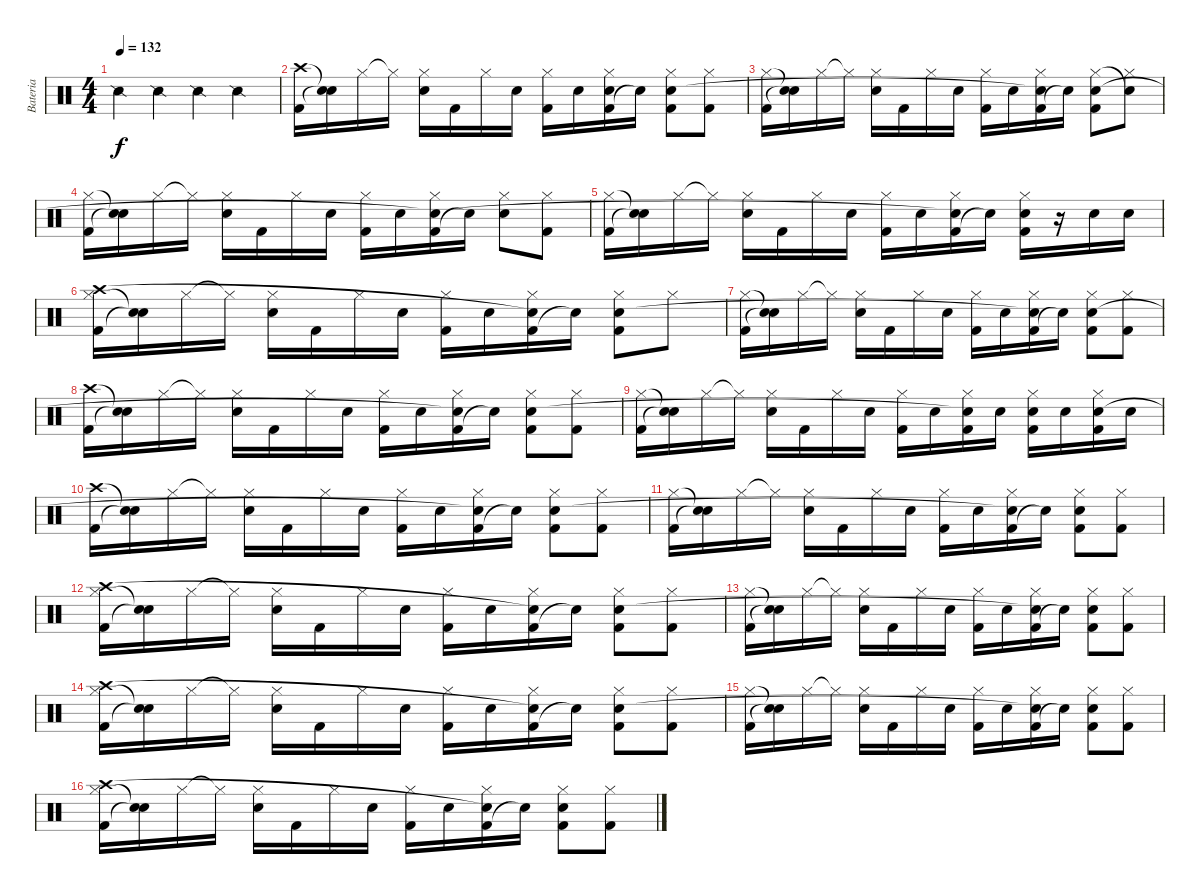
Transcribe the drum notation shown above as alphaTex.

\track ("Bateria" "Bateria") {instrument percussion}
\staff {score}
\articulation defaults
\ts (4 4)
\tempo 132
\clef neutral
\ks c "Snare (side stick) 2".4{dy f} "Snare (side stick) 2".4 "Snare (side stick) 2".4 "Snare (side stick) 2".4
|
("Kick (hit) 2" "Crash high (hit)").16 ("Snare (hit)"{t} "Electric Snare (hit)"{t}).16 "Hi-Hat (closed)".16 "Hi-Hat (closed)"{t}.16 ("Hi-Hat (closed)" "Electric Snare (hit)").16 "Kick (hit) 2".16 "Hi-Hat (closed)".16 "Electric Snare (hit)".16 ("Kick (hit) 2" "Hi-Hat (closed)").16 "Electric Snare (hit)".16 ("Kick (hit) 2" "Hi-Hat (closed)" "Snare (hit)").16 "Electric Snare (hit)"{t}.16 ("Kick (hit) 2" "Hi-Hat (closed)" "Electric Snare (hit)").8 ("Kick (hit) 2" "Hi-Hat (closed)").8 |
("Kick (hit) 2" "Hi-Hat (closed)").16 ("Snare (hit)"{t} "Electric Snare (hit)"{t}).16 "Hi-Hat (closed)".16 "Hi-Hat (closed)"{t}.16 ("Hi-Hat (closed)" "Electric Snare (hit)").16 "Kick (hit) 2".16 "Hi-Hat (closed)".16 "Electric Snare (hit)".16 ("Kick (hit) 2" "Hi-Hat (closed)").16 "Electric Snare (hit)".16 ("Kick (hit) 2" "Hi-Hat (closed)" "Snare (hit)"{t}).16 "Electric Snare (hit)"{t}.16 ("Kick (hit) 2" "Hi-Hat (closed)" "Electric Snare (hit)").8 ("Hi-Hat (closed)" "Snare (hit)"{t}).8 |
("Kick (hit) 2" "Hi-Hat (closed)").16 ("Snare (hit)"{t} "Electric Snare (hit)"{t}).16 "Hi-Hat (closed)".16 "Hi-Hat (closed)"{t}.16 ("Hi-Hat (closed)" "Electric Snare (hit)").16 "Kick (hit) 2".16 "Hi-Hat (closed)".16 "Electric Snare (hit)".16 ("Kick (hit) 2" "Hi-Hat (closed)").16 "Electric Snare (hit)".16 ("Kick (hit) 2" "Hi-Hat (closed)" "Snare (hit)"{t}).16 "Electric Snare (hit)"{t}.16 ("Hi-Hat (closed)" "Electric Snare (hit)").8 ("Kick (hit) 2" "Hi-Hat (closed)").8 |
("Kick (hit) 2" "Hi-Hat (closed)").16 ("Snare (hit)"{t} "Electric Snare (hit)"{t}).16 "Hi-Hat (closed)".16 "Hi-Hat (closed)"{t}.16 ("Hi-Hat (closed)" "Electric Snare (hit)").16 "Kick (hit) 2".16 "Hi-Hat (closed)".16 "Electric Snare (hit)".16 ("Kick (hit) 2" "Hi-Hat (closed)").16 "Electric Snare (hit)".16 ("Kick (hit) 2" "Hi-Hat (closed)" "Snare (hit)"{t}).16 "Electric Snare (hit)"{t}.16 ("Kick (hit) 2" "Hi-Hat (closed)" "Electric Snare (hit)").16 r.16 "Electric Snare (hit)".16 "Electric Snare (hit)".16 |
("Kick (hit) 2" "Hi-Hat (closed)" "Crash high (hit)").16 ("Snare (hit)"{t} "Electric Snare (hit)"{t}).16 "Hi-Hat (closed)".16 "Hi-Hat (closed)"{t}.16 ("Hi-Hat (closed)" "Electric Snare (hit)").16 "Kick (hit) 2".16 "Hi-Hat (closed)".16 "Electric Snare (hit)".16 ("Kick (hit) 2" "Hi-Hat (closed)").16 "Electric Snare (hit)".16 ("Kick (hit) 2" "Hi-Hat (closed)" "Snare (hit)"{t}).16 "Electric Snare (hit)"{t}.16 ("Kick (hit) 2" "Hi-Hat (closed)" "Electric Snare (hit)").8 "Hi-Hat (closed)".8 |
("Kick (hit) 2" "Hi-Hat (closed)").16 ("Snare (hit)"{t} "Electric Snare (hit)"{t}).16 "Hi-Hat (closed)".16 "Hi-Hat (closed)"{t}.16 ("Hi-Hat (closed)" "Electric Snare (hit)").16 "Kick (hit) 2".16 "Hi-Hat (closed)".16 "Electric Snare (hit)".16 ("Kick (hit) 2" "Hi-Hat (closed)").16 "Electric Snare (hit)".16 ("Kick (hit) 2" "Hi-Hat (closed)" "Snare (hit)"{t}).16 "Electric Snare (hit)"{t}.16 ("Kick (hit) 2" "Hi-Hat (closed)" "Electric Snare (hit)").8 ("Kick (hit) 2" "Hi-Hat (closed)").8 |
("Kick (hit) 2" "Crash high (hit)").16 ("Snare (hit)"{t} "Electric Snare (hit)"{t}).16 "Hi-Hat (closed)".16 "Hi-Hat (closed)"{t}.16 ("Hi-Hat (closed)" "Electric Snare (hit)").16 "Kick (hit) 2".16 "Hi-Hat (closed)".16 "Electric Snare (hit)".16 ("Kick (hit) 2" "Hi-Hat (closed)").16 "Electric Snare (hit)".16 ("Kick (hit) 2" "Hi-Hat (closed)" "Snare (hit)"{t}).16 "Electric Snare (hit)"{t}.16 ("Kick (hit) 2" "Hi-Hat (closed)" "Electric Snare (hit)").8 ("Kick (hit) 2" "Hi-Hat (closed)").8 |
("Kick (hit) 2" "Hi-Hat (closed)").16 ("Snare (hit)"{t} "Electric Snare (hit)"{t}).16 "Hi-Hat (closed)".16 "Hi-Hat (closed)"{t}.16 ("Hi-Hat (closed)" "Electric Snare (hit)").16 "Kick (hit) 2".16 "Hi-Hat (closed)".16 "Electric Snare (hit)".16 ("Kick (hit) 2" "Hi-Hat (closed)").16 "Electric Snare (hit)".16 ("Kick (hit) 2" "Hi-Hat (closed)" "Snare (hit)"{t}).16 "Electric Snare (hit)".16 ("Kick (hit) 2" "Hi-Hat (closed)" "Electric Snare (hit)").16 "Electric Snare (hit)".16 ("Kick (hit) 2" "Hi-Hat (closed)" "Electric Snare (hit)").16 "Electric Snare (hit)".16 |
("Kick (hit) 2" "Crash high (hit)").16 ("Snare (hit)"{t} "Electric Snare (hit)"{t}).16 "Hi-Hat (closed)".16 "Hi-Hat (closed)"{t}.16 ("Hi-Hat (closed)" "Electric Snare (hit)").16 "Kick (hit) 2".16 "Hi-Hat (closed)".16 "Electric Snare (hit)".16 ("Kick (hit) 2" "Hi-Hat (closed)").16 "Electric Snare (hit)".16 ("Kick (hit) 2" "Hi-Hat (closed)" "Snare (hit)"{t}).16 "Electric Snare (hit)"{t}.16 ("Kick (hit) 2" "Hi-Hat (closed)" "Electric Snare (hit)").8 ("Kick (hit) 2" "Hi-Hat (closed)").8 |
("Kick (hit) 2" "Hi-Hat (closed)").16 ("Snare (hit)"{t} "Electric Snare (hit)"{t}).16 "Hi-Hat (closed)".16 "Hi-Hat (closed)"{t}.16 ("Hi-Hat (closed)" "Electric Snare (hit)").16 "Kick (hit) 2".16 "Hi-Hat (closed)".16 "Electric Snare (hit)".16 ("Kick (hit) 2" "Hi-Hat (closed)").16 "Electric Snare (hit)".16 ("Kick (hit) 2" "Hi-Hat (closed)" "Snare (hit)"{t}).16 "Electric Snare (hit)"{t}.16 ("Kick (hit) 2" "Hi-Hat (closed)" "Electric Snare (hit)").8 ("Kick (hit) 2" "Hi-Hat (closed)").8 |
("Kick (hit) 2" "Hi-Hat (closed)" "Crash high (hit)").16 ("Snare (hit)"{t} "Electric Snare (hit)"{t}).16 "Hi-Hat (closed)".16 "Hi-Hat (closed)"{t}.16 ("Hi-Hat (closed)" "Electric Snare (hit)").16 "Kick (hit) 2".16 "Hi-Hat (closed)".16 "Electric Snare (hit)".16 ("Kick (hit) 2" "Hi-Hat (closed)").16 "Electric Snare (hit)".16 ("Kick (hit) 2" "Hi-Hat (closed)" "Snare (hit)"{t}).16 "Electric Snare (hit)"{t}.16 ("Kick (hit) 2" "Hi-Hat (closed)" "Electric Snare (hit)").8 ("Kick (hit) 2" "Hi-Hat (closed)").8 |
("Kick (hit) 2" "Hi-Hat (closed)").16 ("Snare (hit)"{t} "Electric Snare (hit)"{t}).16 "Hi-Hat (closed)".16 "Hi-Hat (closed)"{t}.16 ("Hi-Hat (closed)" "Electric Snare (hit)").16 "Kick (hit) 2".16 "Hi-Hat (closed)".16 "Electric Snare (hit)".16 ("Kick (hit) 2" "Hi-Hat (closed)").16 "Electric Snare (hit)".16 ("Kick (hit) 2" "Hi-Hat (closed)" "Snare (hit)"{t}).16 "Electric Snare (hit)"{t}.16 ("Kick (hit) 2" "Hi-Hat (closed)" "Electric Snare (hit)").8 ("Kick (hit) 2" "Hi-Hat (closed)").8 |
("Kick (hit) 2" "Hi-Hat (closed)" "Crash high (hit)").16 ("Snare (hit)"{t} "Electric Snare (hit)"{t}).16 "Hi-Hat (closed)".16 "Hi-Hat (closed)"{t}.16 ("Hi-Hat (closed)" "Electric Snare (hit)").16 "Kick (hit) 2".16 "Hi-Hat (closed)".16 "Electric Snare (hit)".16 ("Kick (hit) 2" "Hi-Hat (closed)").16 "Electric Snare (hit)".16 ("Kick (hit) 2" "Hi-Hat (closed)" "Snare (hit)"{t}).16 "Electric Snare (hit)"{t}.16 ("Kick (hit) 2" "Hi-Hat (closed)" "Electric Snare (hit)").8 ("Kick (hit) 2" "Hi-Hat (closed)").8 |
("Kick (hit) 2" "Hi-Hat (closed)").16 ("Snare (hit)"{t} "Electric Snare (hit)"{t}).16 "Hi-Hat (closed)".16 "Hi-Hat (closed)"{t}.16 ("Hi-Hat (closed)" "Electric Snare (hit)").16 "Kick (hit) 2".16 "Hi-Hat (closed)".16 "Electric Snare (hit)".16 ("Kick (hit) 2" "Hi-Hat (closed)").16 "Electric Snare (hit)".16 ("Kick (hit) 2" "Hi-Hat (closed)" "Snare (hit)"{t}).16 "Electric Snare (hit)"{t}.16 ("Kick (hit) 2" "Hi-Hat (closed)" "Electric Snare (hit)").8 ("Kick (hit) 2" "Hi-Hat (closed)").8 |
("Kick (hit) 2" "Hi-Hat (closed)" "Crash high (hit)").16 ("Snare (hit)"{t} "Electric Snare (hit)"{t}).16 "Hi-Hat (closed)".16 "Hi-Hat (closed)"{t}.16 ("Hi-Hat (closed)" "Electric Snare (hit)").16 "Kick (hit) 2".16 "Hi-Hat (closed)".16 "Electric Snare (hit)".16 ("Kick (hit) 2" "Hi-Hat (closed)").16 "Electric Snare (hit)".16 ("Kick (hit) 2" "Hi-Hat (closed)" "Snare (hit)"{t}).16 "Electric Snare (hit)"{t}.16 ("Kick (hit) 2" "Hi-Hat (closed)" "Electric Snare (hit)").8 ("Kick (hit) 2" "Hi-Hat (closed)").8
